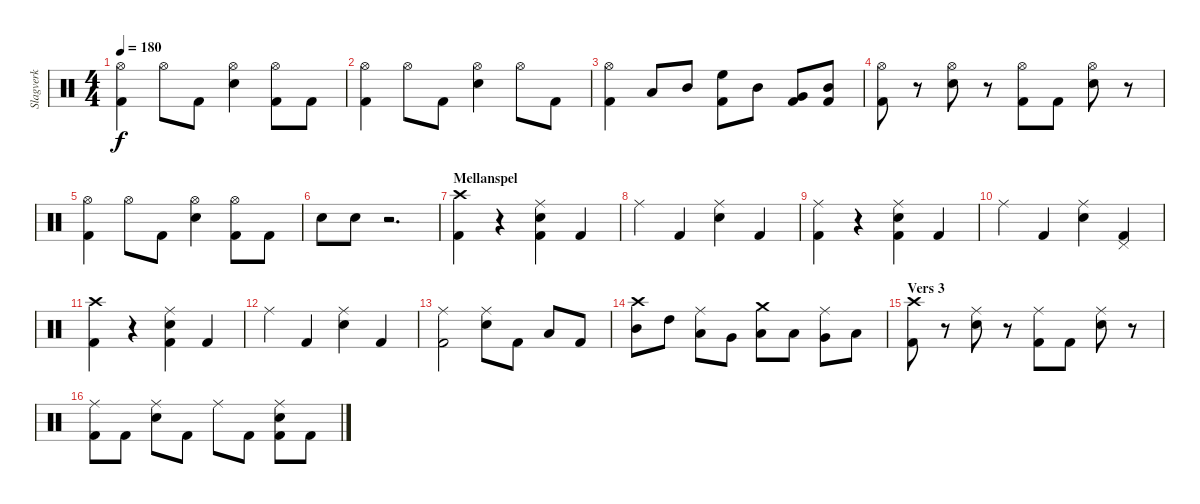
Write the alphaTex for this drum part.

\track ("Slagverk" "Slagverk") {instrument percussion}
\staff {score}
\articulation defaults
\ts (4 4)
\tempo 180
\clef neutral
\ks c
("Kick (hit) 2" "Hi-Hat (open)").4{dy f} "Hi-Hat (open)".8 "Kick (hit) 2".8 ("Snare (hit) 2" "Hi-Hat (open)").4 ("Kick (hit) 2" "Hi-Hat (open)").8 "Kick (hit) 2".8 |
("Kick (hit) 2" "Hi-Hat (open)").4 "Hi-Hat (open)".8 "Kick (hit) 2".8 ("Snare (hit) 2" "Hi-Hat (open)").4 "Hi-Hat (open)".8 "Kick (hit) 2".8 |
("Kick (hit) 2" "Hi-Hat (open)").4 "Low Tom (hit)".8 "Mid Tom (hit)".8 ("Kick (hit) 2" "High Floor Tom (hit)").8 "Mid Tom (hit)".8 ("Kick (hit) 2" "Very Low Tom (hit)").8 ("Kick (hit) 2" "Mid Tom (hit)").8 |
("Kick (hit) 2" "Hi-Hat (open)").8 r.8 ("Snare (hit) 2" "Hi-Hat (open)").8 r.8 ("Kick (hit) 2" "Hi-Hat (open)").8 "Kick (hit) 2".8 ("Snare (hit) 2" "Hi-Hat (open)").8 r.8 |
("Kick (hit) 2" "Hi-Hat (open)").4 "Hi-Hat (open)".8 "Kick (hit) 2".8 ("Snare (hit) 2" "Hi-Hat (open)").4 ("Kick (hit) 2" "Hi-Hat (open)").8 "Kick (hit) 2".8 |
"Snare (hit) 2".8 "Snare (hit) 2".8 r.2{d} |
\section ("" "Mellanspel")
("Kick (hit) 2" "Crash high (hit)").4 r.4 ("Kick (hit) 2" "Snare (hit) 2" "Ride (middle)").4 "Kick (hit) 2".4 |
"Ride (middle)".4 "Kick (hit) 2".4 ("Snare (hit) 2" "Ride (middle)").4 "Kick (hit) 2".4 |
("Kick (hit) 2" "Ride (middle)").4 r.4 ("Kick (hit) 2" "Snare (hit) 2" "Ride (middle)").4 "Kick (hit) 2".4 |
"Ride (middle)".4 "Kick (hit) 2".4 ("Snare (hit) 2" "Ride (middle)").4 ("Kick (hit) 2" "Pedal Hi-Hat (hit)").4 |
("Kick (hit) 2" "Crash high (hit)").4 r.4 ("Kick (hit) 2" "Snare (hit) 2" "Ride (middle)").4 "Kick (hit) 2".4 |
"Ride (middle)".4 "Kick (hit) 2".4 ("Snare (hit) 2" "Ride (middle)").4 "Kick (hit) 2".4 |
("Kick (hit) 2" "Ride (middle)").2 ("Snare (hit) 2" "Ride (middle)").8 "Kick (hit) 2".8 "Low Floor Tom (hit)".8 "Kick (hit) 2".8 |
("Mid Tom (hit)" "Crash high (hit)").8 "High Tom (hit)".8 ("Low Tom (hit)" "Ride (middle)").8 "Very Low Tom (hit)".8 ("Low Floor Tom (hit)" "Crash medium (hit)").8 "Low Tom (hit)".8 ("Very Low Tom (hit)" "Ride (middle)").8 "Low Floor Tom (hit)".8 |
\section ("" "Vers 3")
("Kick (hit) 2" "Crash high (hit)").8 r.8 ("Snare (hit) 2" "Ride (middle)").8 r.8 ("Kick (hit) 2" "Ride (middle)").8 "Kick (hit) 2".8 ("Snare (hit) 2" "Ride (middle)").8 r.8 |
("Kick (hit) 2" "Ride (middle)").8 "Kick (hit) 2".8 ("Snare (hit) 2" "Ride (middle)").8 "Kick (hit) 2".8 "Ride (middle)".8 "Kick (hit) 2".8 ("Kick (hit) 2" "Snare (hit) 2" "Ride (middle)").8 "Kick (hit) 2".8
